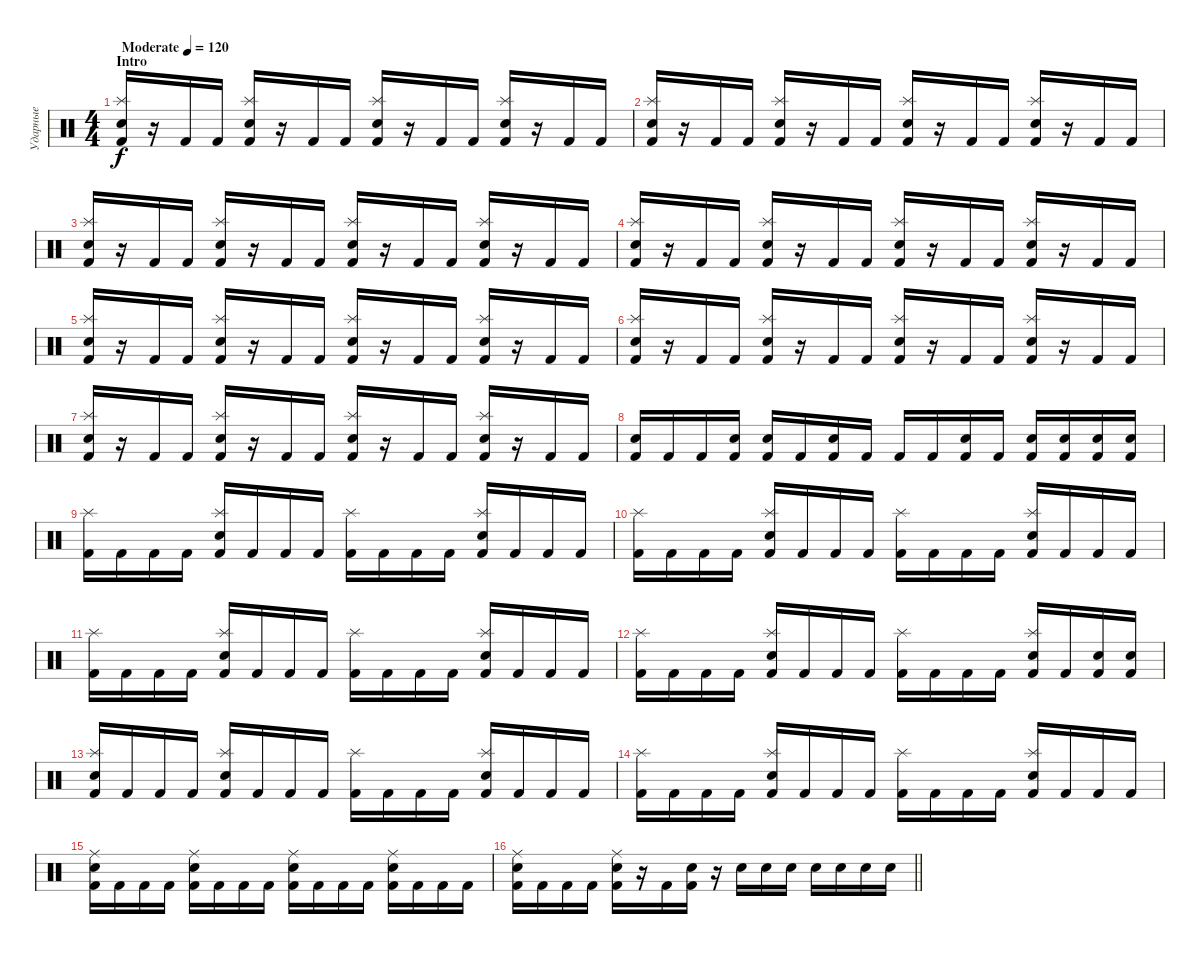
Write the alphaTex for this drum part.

\track ("Ударные" "Ударные") {instrument percussion}
\staff {score}
\articulation defaults
\ts (4 4)
\section ("" "Intro")
\tempo (120 "Moderate")
\tempo 124
\tempo (120 "Moderate")
\clef neutral
\ks c
("Kick (hit) 2" "Splash (hit)" "Snare (hit) 2").16{dy f} r.16 "Kick (hit) 2".16 "Kick (hit) 2".16 ("Kick (hit) 2" "Splash (hit)" "Snare (hit) 2").16 r.16 "Kick (hit) 2".16 "Kick (hit) 2".16 ("Kick (hit) 2" "Splash (hit)" "Snare (hit) 2").16 r.16 "Kick (hit) 2".16 "Kick (hit) 2".16 ("Kick (hit) 2" "Splash (hit)" "Snare (hit) 2").16 r.16 "Kick (hit) 2".16 "Kick (hit) 2".16 |
("Kick (hit) 2" "Splash (hit)" "Snare (hit) 2").16 r.16 "Kick (hit) 2".16 "Kick (hit) 2".16 ("Kick (hit) 2" "Splash (hit)" "Snare (hit) 2").16 r.16 "Kick (hit) 2".16 "Kick (hit) 2".16 ("Kick (hit) 2" "Splash (hit)" "Snare (hit) 2").16 r.16 "Kick (hit) 2".16 "Kick (hit) 2".16 ("Kick (hit) 2" "Splash (hit)" "Snare (hit) 2").16 r.16 "Kick (hit) 2".16 "Kick (hit) 2".16 |
("Kick (hit) 2" "Splash (hit)" "Snare (hit) 2").16 r.16 "Kick (hit) 2".16 "Kick (hit) 2".16 ("Kick (hit) 2" "Splash (hit)" "Snare (hit) 2").16 r.16 "Kick (hit) 2".16 "Kick (hit) 2".16 ("Kick (hit) 2" "Splash (hit)" "Snare (hit) 2").16 r.16 "Kick (hit) 2".16 "Kick (hit) 2".16 ("Kick (hit) 2" "Splash (hit)" "Snare (hit) 2").16 r.16 "Kick (hit) 2".16 "Kick (hit) 2".16 |
("Kick (hit) 2" "Splash (hit)" "Snare (hit) 2").16 r.16 "Kick (hit) 2".16 "Kick (hit) 2".16 ("Kick (hit) 2" "Splash (hit)" "Snare (hit) 2").16 r.16 "Kick (hit) 2".16 "Kick (hit) 2".16 ("Kick (hit) 2" "Splash (hit)" "Snare (hit) 2").16 r.16 "Kick (hit) 2".16 "Kick (hit) 2".16 ("Kick (hit) 2" "Splash (hit)" "Snare (hit) 2").16 r.16 "Kick (hit) 2".16 "Kick (hit) 2".16 |
("Kick (hit) 2" "Splash (hit)" "Snare (hit) 2").16 r.16 "Kick (hit) 2".16 "Kick (hit) 2".16 ("Kick (hit) 2" "Splash (hit)" "Snare (hit) 2").16 r.16 "Kick (hit) 2".16 "Kick (hit) 2".16 ("Kick (hit) 2" "Splash (hit)" "Snare (hit) 2").16 r.16 "Kick (hit) 2".16 "Kick (hit) 2".16 ("Kick (hit) 2" "Splash (hit)" "Snare (hit) 2").16 r.16 "Kick (hit) 2".16 "Kick (hit) 2".16 |
("Kick (hit) 2" "Splash (hit)" "Snare (hit) 2").16 r.16 "Kick (hit) 2".16 "Kick (hit) 2".16 ("Kick (hit) 2" "Splash (hit)" "Snare (hit) 2").16 r.16 "Kick (hit) 2".16 "Kick (hit) 2".16 ("Kick (hit) 2" "Splash (hit)" "Snare (hit) 2").16 r.16 "Kick (hit) 2".16 "Kick (hit) 2".16 ("Kick (hit) 2" "Splash (hit)" "Snare (hit) 2").16 r.16 "Kick (hit) 2".16 "Kick (hit) 2".16 |
("Kick (hit) 2" "Splash (hit)" "Snare (hit) 2").16 r.16 "Kick (hit) 2".16 "Kick (hit) 2".16 ("Kick (hit) 2" "Splash (hit)" "Snare (hit) 2").16 r.16 "Kick (hit) 2".16 "Kick (hit) 2".16 ("Kick (hit) 2" "Splash (hit)" "Snare (hit) 2").16 r.16 "Kick (hit) 2".16 "Kick (hit) 2".16 ("Kick (hit) 2" "Splash (hit)" "Snare (hit) 2").16 r.16 "Kick (hit) 2".16 "Kick (hit) 2".16 |
("Kick (hit) 2" "Snare (hit) 2").16 "Kick (hit) 2".16 "Kick (hit) 2".16 ("Kick (hit) 2" "Snare (hit) 2").16 ("Kick (hit) 2" "Snare (hit) 2").16 "Kick (hit) 2".16 ("Kick (hit) 2" "Snare (hit) 2").16 "Kick (hit) 2".16 "Kick (hit) 2".16 "Kick (hit) 2".16 ("Kick (hit) 2" "Snare (hit) 2").16 "Kick (hit) 2".16 ("Kick (hit) 2" "Snare (hit) 2").16 ("Kick (hit) 2" "Snare (hit) 2").16 ("Kick (hit) 2" "Snare (hit) 2").16 ("Kick (hit) 2" "Snare (hit) 2").16 |
("Kick (hit) 2" "Splash (hit)").16 "Kick (hit) 2".16 "Kick (hit) 2".16 "Kick (hit) 2".16 ("Kick (hit) 2" "Splash (hit)" "Snare (hit) 2").16 "Kick (hit) 2".16 "Kick (hit) 2".16 "Kick (hit) 2".16 ("Kick (hit) 2" "Splash (hit)").16 "Kick (hit) 2".16 "Kick (hit) 2".16 "Kick (hit) 2".16 ("Kick (hit) 2" "Splash (hit)" "Snare (hit) 2").16 "Kick (hit) 2".16 "Kick (hit) 2".16 "Kick (hit) 2".16 |
("Kick (hit) 2" "Splash (hit)").16 "Kick (hit) 2".16 "Kick (hit) 2".16 "Kick (hit) 2".16 ("Kick (hit) 2" "Splash (hit)" "Snare (hit) 2").16 "Kick (hit) 2".16 "Kick (hit) 2".16 "Kick (hit) 2".16 ("Kick (hit) 2" "Splash (hit)").16 "Kick (hit) 2".16 "Kick (hit) 2".16 "Kick (hit) 2".16 ("Kick (hit) 2" "Splash (hit)" "Snare (hit) 2").16 "Kick (hit) 2".16 "Kick (hit) 2".16 "Kick (hit) 2".16 |
("Kick (hit) 2" "Splash (hit)").16 "Kick (hit) 2".16 "Kick (hit) 2".16 "Kick (hit) 2".16 ("Kick (hit) 2" "Splash (hit)" "Snare (hit) 2").16 "Kick (hit) 2".16 "Kick (hit) 2".16 "Kick (hit) 2".16 ("Kick (hit) 2" "Splash (hit)").16 "Kick (hit) 2".16 "Kick (hit) 2".16 "Kick (hit) 2".16 ("Kick (hit) 2" "Splash (hit)" "Snare (hit) 2").16 "Kick (hit) 2".16 "Kick (hit) 2".16 "Kick (hit) 2".16 |
("Kick (hit) 2" "Splash (hit)").16 "Kick (hit) 2".16 "Kick (hit) 2".16 "Kick (hit) 2".16 ("Kick (hit) 2" "Splash (hit)" "Snare (hit) 2").16 "Kick (hit) 2".16 "Kick (hit) 2".16 "Kick (hit) 2".16 ("Kick (hit) 2" "Splash (hit)").16 "Kick (hit) 2".16 "Kick (hit) 2".16 "Kick (hit) 2".16 ("Kick (hit) 2" "Splash (hit)" "Snare (hit) 2").16 "Kick (hit) 2".16 ("Kick (hit) 2" "Snare (hit) 2").16 ("Kick (hit) 2" "Snare (hit) 2").16 |
("Kick (hit) 2" "Splash (hit)" "Snare (hit) 2").16 "Kick (hit) 2".16 "Kick (hit) 2".16 "Kick (hit) 2".16 ("Kick (hit) 2" "Splash (hit)" "Snare (hit) 2").16 "Kick (hit) 2".16 "Kick (hit) 2".16 "Kick (hit) 2".16 ("Kick (hit) 2" "Splash (hit)").16 "Kick (hit) 2".16 "Kick (hit) 2".16 "Kick (hit) 2".16 ("Kick (hit) 2" "Splash (hit)" "Snare (hit) 2").16 "Kick (hit) 2".16 "Kick (hit) 2".16 "Kick (hit) 2".16 |
("Kick (hit) 2" "Splash (hit)").16 "Kick (hit) 2".16 "Kick (hit) 2".16 "Kick (hit) 2".16 ("Kick (hit) 2" "Splash (hit)" "Snare (hit) 2").16 "Kick (hit) 2".16 "Kick (hit) 2".16 "Kick (hit) 2".16 ("Kick (hit) 2" "Splash (hit)").16 "Kick (hit) 2".16 "Kick (hit) 2".16 "Kick (hit) 2".16 ("Kick (hit) 2" "Splash (hit)" "Snare (hit) 2").16 "Kick (hit) 2".16 "Kick (hit) 2".16 "Kick (hit) 2".16 |
("Kick (hit) 2" "Ride (middle)" "Snare (hit) 2").16 "Kick (hit) 2".16 "Kick (hit) 2".16 "Kick (hit) 2".16 ("Kick (hit) 2" "Ride (middle)" "Snare (hit) 2").16 "Kick (hit) 2".16 "Kick (hit) 2".16 "Kick (hit) 2".16 ("Kick (hit) 2" "Ride (middle)" "Snare (hit) 2").16 "Kick (hit) 2".16 "Kick (hit) 2".16 "Kick (hit) 2".16 ("Kick (hit) 2" "Ride (middle)" "Snare (hit) 2").16 "Kick (hit) 2".16 "Kick (hit) 2".16 "Kick (hit) 2".16 |
\barLineRight lightlight
("Kick (hit) 2" "Ride (middle)" "Snare (hit) 2").16 "Kick (hit) 2".16 "Kick (hit) 2".16 "Kick (hit) 2".16 ("Kick (hit) 2" "Ride (middle)" "Snare (hit) 2").16 r.16 "Kick (hit) 2".16 ("Kick (hit) 2" "Snare (hit) 2").16 r.16 "Snare (hit) 2".16 "Snare (hit) 2".16 "Snare (hit) 2".16 "Snare (hit) 2".16 "Snare (hit) 2".16 "Snare (hit) 2".16 "Snare (hit) 2".16
